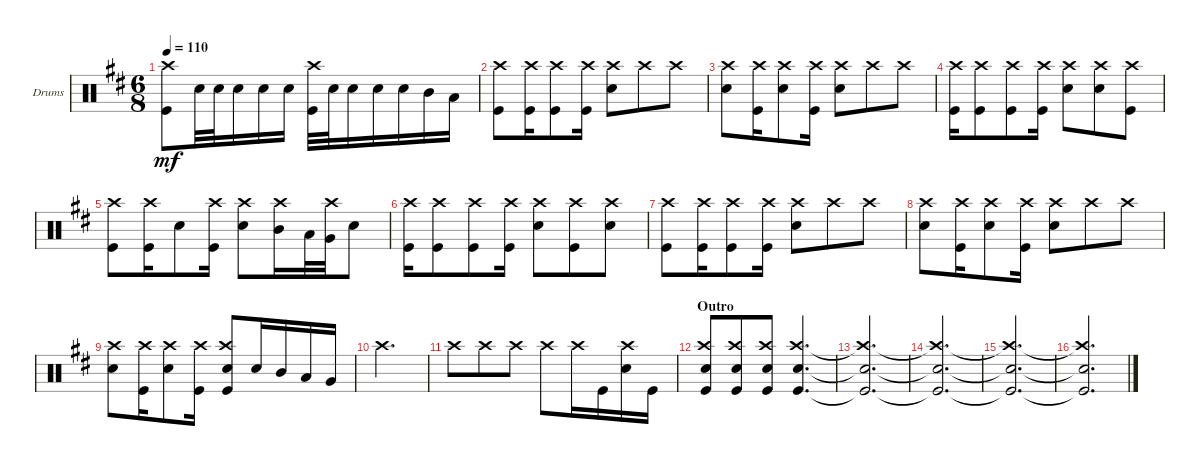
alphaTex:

\defaultSystemsLayout 4
\bracketExtendMode groupsimilarinstruments
\firstSystemTrackNameOrientation horizontal
\otherSystemsTrackNameOrientation horizontal
\track ("Drumkit" "Drums") {instrument percussion}
\staff {score}
\articulation defaults
\ts (6 8)
\tempo 110
\clef neutral
\ks d
("Kick (hit)" "Crash high (hit)").8{dy mf} "Snare (hit) 2".32 "Snare (hit) 2".32 "Snare (hit) 2".16 "Snare (hit) 2".16 "Snare (hit) 2".16 ("Kick (hit)" "Crash high (hit)").32 "Snare (hit) 2".32 "Snare (hit) 2".16 "Snare (hit) 2".16 "Snare (hit) 2".16 "Mid Tom (hit)".16 "Low Tom (hit)".16 |
("Kick (hit)" "Crash high (hit)").8 ("Kick (hit)" "Crash high (hit)").16 ("Kick (hit)" "Crash high (hit)").8 ("Kick (hit)" "Crash high (hit)").16 ("Snare (hit) 2" "Crash high (hit)").8 "Crash high (hit)".8 "Crash high (hit)".8 |
("Crash high (hit)" "Snare (hit) 2").8 ("Kick (hit)" "Crash high (hit)").16 ("Crash high (hit)" "Snare (hit) 2").8 ("Kick (hit)" "Crash high (hit)").16 ("Snare (hit) 2" "Crash high (hit)").8 "Crash high (hit)".8 "Crash high (hit)".8 |
("Kick (hit)" "Crash high (hit)").16 ("Kick (hit)" "Crash high (hit)").8 ("Kick (hit)" "Crash high (hit)").8 ("Kick (hit)" "Crash high (hit)").16 ("Snare (hit) 2" "Crash high (hit)").8 ("Crash high (hit)" "Snare (hit) 2").8 ("Crash high (hit)" "Kick (hit)").8 |
("Kick (hit)" "Crash high (hit)").8 ("Kick (hit)" "Crash high (hit)").16 "Snare (hit) 2".8 ("Kick (hit)" "Crash high (hit)").16 ("Snare (hit) 2" "Crash high (hit)").8 ("Mid Tom (hit)" "Crash high (hit)").16 "Low Tom (hit)".32 ("Very Low Tom (hit)" "Crash high (hit)").32 "Snare (hit) 2".8 |
("Kick (hit)" "Crash high (hit)").16 ("Kick (hit)" "Crash high (hit)").8 ("Kick (hit)" "Crash high (hit)").8 ("Kick (hit)" "Crash high (hit)").16 ("Snare (hit) 2" "Crash high (hit)").8 ("Kick (hit)" "Crash high (hit)").8 ("Snare (hit) 2" "Crash high (hit)").8 |
("Kick (hit)" "Crash high (hit)").8 ("Kick (hit)" "Crash high (hit)").16 ("Kick (hit)" "Crash high (hit)").8 ("Kick (hit)" "Crash high (hit)").16 ("Snare (hit) 2" "Crash high (hit)").8 "Crash high (hit)".8 "Crash high (hit)".8 |
("Crash high (hit)" "Snare (hit) 2").8 ("Kick (hit)" "Crash high (hit)").16 ("Crash high (hit)" "Snare (hit) 2").8 ("Kick (hit)" "Crash high (hit)").16 ("Snare (hit) 2" "Crash high (hit)").8 "Crash high (hit)".8 "Crash high (hit)".8 |
("Crash high (hit)" "Snare (hit) 2").8 ("Kick (hit)" "Crash high (hit)").16 ("Crash high (hit)" "Snare (hit) 2").8 ("Kick (hit)" "Crash high (hit)").16 ("Kick (hit)" "Snare (hit) 2" "Crash high (hit)").8 "Snare (hit) 2".16 "Mid Tom (hit)".16 "Low Tom (hit)".16 "Very Low Tom (hit)".16 |
"Crash high (hit)".2{d} |
"Crash high (hit)".8 "Crash high (hit)".8 "Crash high (hit)".8 "Crash high (hit)".8 "Crash high (hit)".16 "Kick (hit)".16 ("Crash high (hit)" "Snare (hit) 2").16 "Kick (hit)".16 |
\section ("" "Outro")
("Kick (hit)" "Crash high (hit)" "Snare (hit) 2").8 ("Kick (hit)" "Crash high (hit)" "Snare (hit) 2").8 ("Kick (hit)" "Crash high (hit)" "Snare (hit) 2").8 ("Kick (hit)" "Crash high (hit)" "Snare (hit) 2").4{d} |
("Kick (hit)"{t} "Crash high (hit)"{t} "Snare (hit) 2"{t}).2{d} |
("Kick (hit)"{t} "Crash high (hit)"{t} "Snare (hit) 2"{t}).2{d} |
("Kick (hit)"{t} "Crash high (hit)"{t} "Snare (hit) 2"{t}).2{d} |
("Kick (hit)"{t} "Crash high (hit)"{t} "Snare (hit) 2"{t}).2{d}
